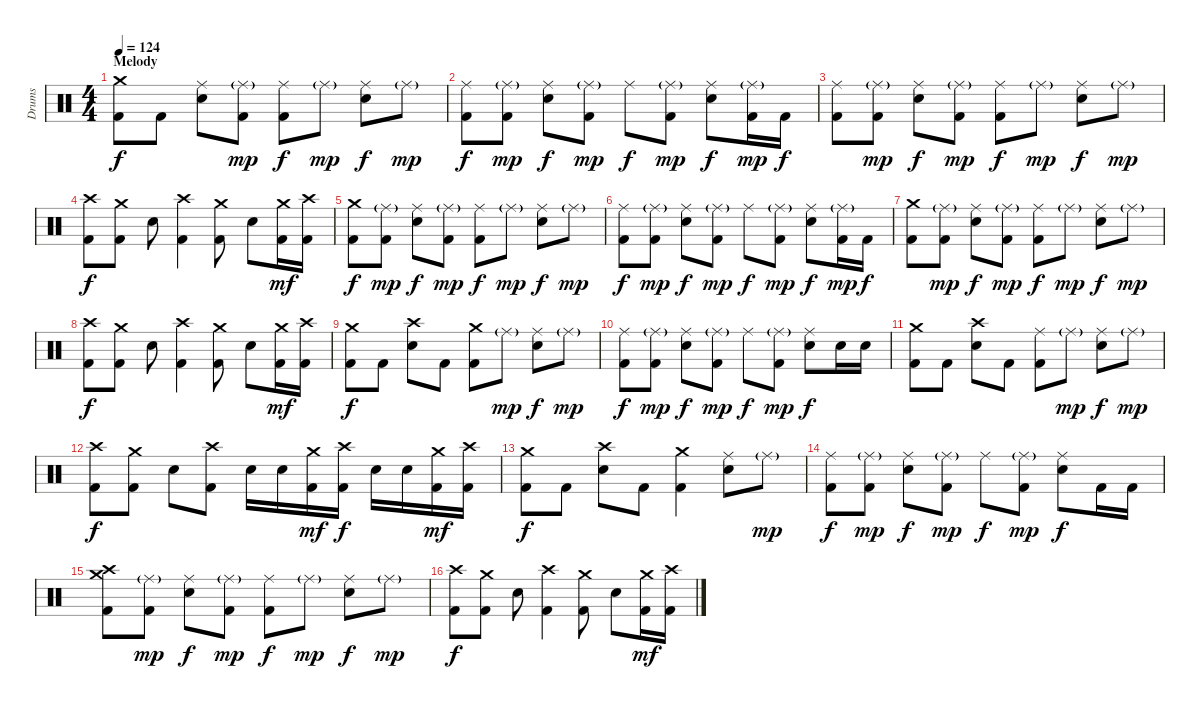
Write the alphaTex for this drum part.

\track ("Drums" "Drums") {instrument percussion}
\staff {score}
\articulation defaults
\ts (4 4)
\section ("" "Melody")
\tempo 124
\clef neutral
\ks c
("Crash medium (hit)" "Kick (hit) 2").8{dy f} "Kick (hit) 2".8 ("Ride (middle)" "Snare (hit) 2").8 ("Ride (middle)"{g} "Kick (hit) 2").8{dy mp} ("Ride (middle)" "Kick (hit) 2").8{dy f} "Ride (middle)"{g}.8{dy mp} ("Ride (middle)" "Snare (hit) 2").8{dy f} "Ride (middle)"{g}.8{dy mp} |
("Ride (middle)" "Kick (hit) 2").8{dy f} ("Ride (middle)"{g} "Kick (hit) 2").8{dy mp} ("Ride (middle)" "Snare (hit) 2").8{dy f} ("Ride (middle)"{g} "Kick (hit) 2").8{dy mp} "Ride (middle)".8{dy f} ("Ride (middle)"{g} "Kick (hit) 2").8{dy mp} ("Ride (middle)" "Snare (hit) 2").8{dy f} ("Ride (middle)"{g} "Kick (hit) 2").16{dy mp} "Kick (hit) 2".16{dy f} |
("Ride (middle)" "Kick (hit) 2").8 ("Ride (middle)"{g} "Kick (hit) 2").8{dy mp} ("Ride (middle)" "Snare (hit) 2").8{dy f} ("Ride (middle)"{g} "Kick (hit) 2").8{dy mp} ("Ride (middle)" "Kick (hit) 2").8{dy f} "Ride (middle)"{g}.8{dy mp} ("Ride (middle)" "Snare (hit) 2").8{dy f} "Ride (middle)"{g}.8{dy mp} |
("Crash high (hit)" "Kick (hit) 2").8{dy f} ("Crash medium (hit)" "Kick (hit) 2").8 "Snare (hit) 2".8 ("Crash high (hit)" "Kick (hit) 2").4 ("Crash medium (hit)" "Kick (hit) 2").8 "Snare (hit) 2".8 ("Crash medium (hit)" "Kick (hit) 2").16{dy mf} ("Crash high (hit)" "Kick (hit) 2").16 |
("Crash medium (hit)" "Kick (hit) 2").8{dy f} ("Ride (middle)"{g} "Kick (hit) 2").8{dy mp} ("Ride (middle)" "Snare (hit) 2").8{dy f} ("Ride (middle)"{g} "Kick (hit) 2").8{dy mp} ("Ride (middle)" "Kick (hit) 2").8{dy f} "Ride (middle)"{g}.8{dy mp} ("Ride (middle)" "Snare (hit) 2").8{dy f} "Ride (middle)"{g}.8{dy mp} |
("Ride (middle)" "Kick (hit) 2").8{dy f} ("Ride (middle)"{g} "Kick (hit) 2").8{dy mp} ("Ride (middle)" "Snare (hit) 2").8{dy f} ("Ride (middle)"{g} "Kick (hit) 2").8{dy mp} "Ride (middle)".8{dy f} ("Ride (middle)"{g} "Kick (hit) 2").8{dy mp} ("Ride (middle)" "Snare (hit) 2").8{dy f} ("Ride (middle)"{g} "Kick (hit) 2").16{dy mp} "Kick (hit) 2".16{dy f} |
("Crash medium (hit)" "Kick (hit) 2").8 ("Ride (middle)"{g} "Kick (hit) 2").8{dy mp} ("Ride (middle)" "Snare (hit) 2").8{dy f} ("Ride (middle)"{g} "Kick (hit) 2").8{dy mp} ("Ride (middle)" "Kick (hit) 2").8{dy f} "Ride (middle)"{g}.8{dy mp} ("Ride (middle)" "Snare (hit) 2").8{dy f} "Ride (middle)"{g}.8{dy mp} |
("Crash high (hit)" "Kick (hit) 2").8{dy f} ("Crash medium (hit)" "Kick (hit) 2").8 "Snare (hit) 2".8 ("Crash high (hit)" "Kick (hit) 2").4 ("Crash medium (hit)" "Kick (hit) 2").8 "Snare (hit) 2".8 ("Crash medium (hit)" "Kick (hit) 2").16{dy mf} ("Crash high (hit)" "Kick (hit) 2").16 |
("Crash medium (hit)" "Kick (hit) 2").8{dy f} "Kick (hit) 2".8 ("Crash high (hit)" "Snare (hit) 2").8 "Kick (hit) 2".8 ("Crash medium (hit)" "Kick (hit) 2").8 "Ride (middle)"{g}.8{dy mp} ("Ride (middle)" "Snare (hit) 2").8{dy f} "Ride (middle)"{g}.8{dy mp} |
("Ride (middle)" "Kick (hit) 2").8{dy f} ("Ride (middle)"{g} "Kick (hit) 2").8{dy mp} ("Ride (middle)" "Snare (hit) 2").8{dy f} ("Ride (middle)"{g} "Kick (hit) 2").8{dy mp} "Ride (middle)".8{dy f} ("Ride (middle)"{g} "Kick (hit) 2").8{dy mp} ("Ride (middle)" "Snare (hit) 2").8{dy f} "Snare (hit) 2".16 "Snare (hit) 2".16 |
("Crash medium (hit)" "Kick (hit) 2").8 "Kick (hit) 2".8 ("Crash high (hit)" "Snare (hit) 2").8 "Kick (hit) 2".8 ("Ride (middle)" "Kick (hit) 2").8 "Ride (middle)"{g}.8{dy mp} ("Ride (middle)" "Snare (hit) 2").8{dy f} "Ride (middle)"{g}.8{dy mp} |
("Crash high (hit)" "Kick (hit) 2").8{dy f} ("Crash medium (hit)" "Kick (hit) 2").8 "Snare (hit) 2".8 ("Crash high (hit)" "Kick (hit) 2").8 "Snare (hit) 2".16 "Snare (hit) 2".16 ("Crash medium (hit)" "Kick (hit) 2").16{dy mf} ("Crash high (hit)" "Kick (hit) 2").16{dy f} "Snare (hit) 2".16 "Snare (hit) 2".16 ("Crash medium (hit)" "Kick (hit) 2").16{dy mf} ("Crash high (hit)" "Kick (hit) 2").16 |
("Crash medium (hit)" "Kick (hit) 2").8{dy f} "Kick (hit) 2".8 ("Crash high (hit)" "Snare (hit) 2").8 "Kick (hit) 2".8 ("Crash medium (hit)" "Kick (hit) 2").4 ("Ride (middle)" "Snare (hit) 2").8 "Ride (middle)"{g}.8{dy mp} |
("Ride (middle)" "Kick (hit) 2").8{dy f} ("Ride (middle)"{g} "Kick (hit) 2").8{dy mp} ("Ride (middle)" "Snare (hit) 2").8{dy f} ("Ride (middle)"{g} "Kick (hit) 2").8{dy mp} "Ride (middle)".8{dy f} ("Ride (middle)"{g} "Kick (hit) 2").8{dy mp} ("Ride (middle)" "Snare (hit) 2").8{dy f} "Kick (hit) 2".16 "Kick (hit) 2".16 |
("Crash medium (hit)" "Crash high (hit)" "Kick (hit) 2").8 ("Ride (middle)"{g} "Kick (hit) 2").8{dy mp} ("Ride (middle)" "Snare (hit) 2").8{dy f} ("Ride (middle)"{g} "Kick (hit) 2").8{dy mp} ("Ride (middle)" "Kick (hit) 2").8{dy f} "Ride (middle)"{g}.8{dy mp} ("Ride (middle)" "Snare (hit) 2").8{dy f} "Ride (middle)"{g}.8{dy mp} |
("Crash high (hit)" "Kick (hit) 2").8{dy f} ("Crash medium (hit)" "Kick (hit) 2").8 "Snare (hit) 2".8 ("Crash high (hit)" "Kick (hit) 2").4 ("Crash medium (hit)" "Kick (hit) 2").8 "Snare (hit) 2".8 ("Crash medium (hit)" "Kick (hit) 2").16{dy mf} ("Crash high (hit)" "Kick (hit) 2").16
